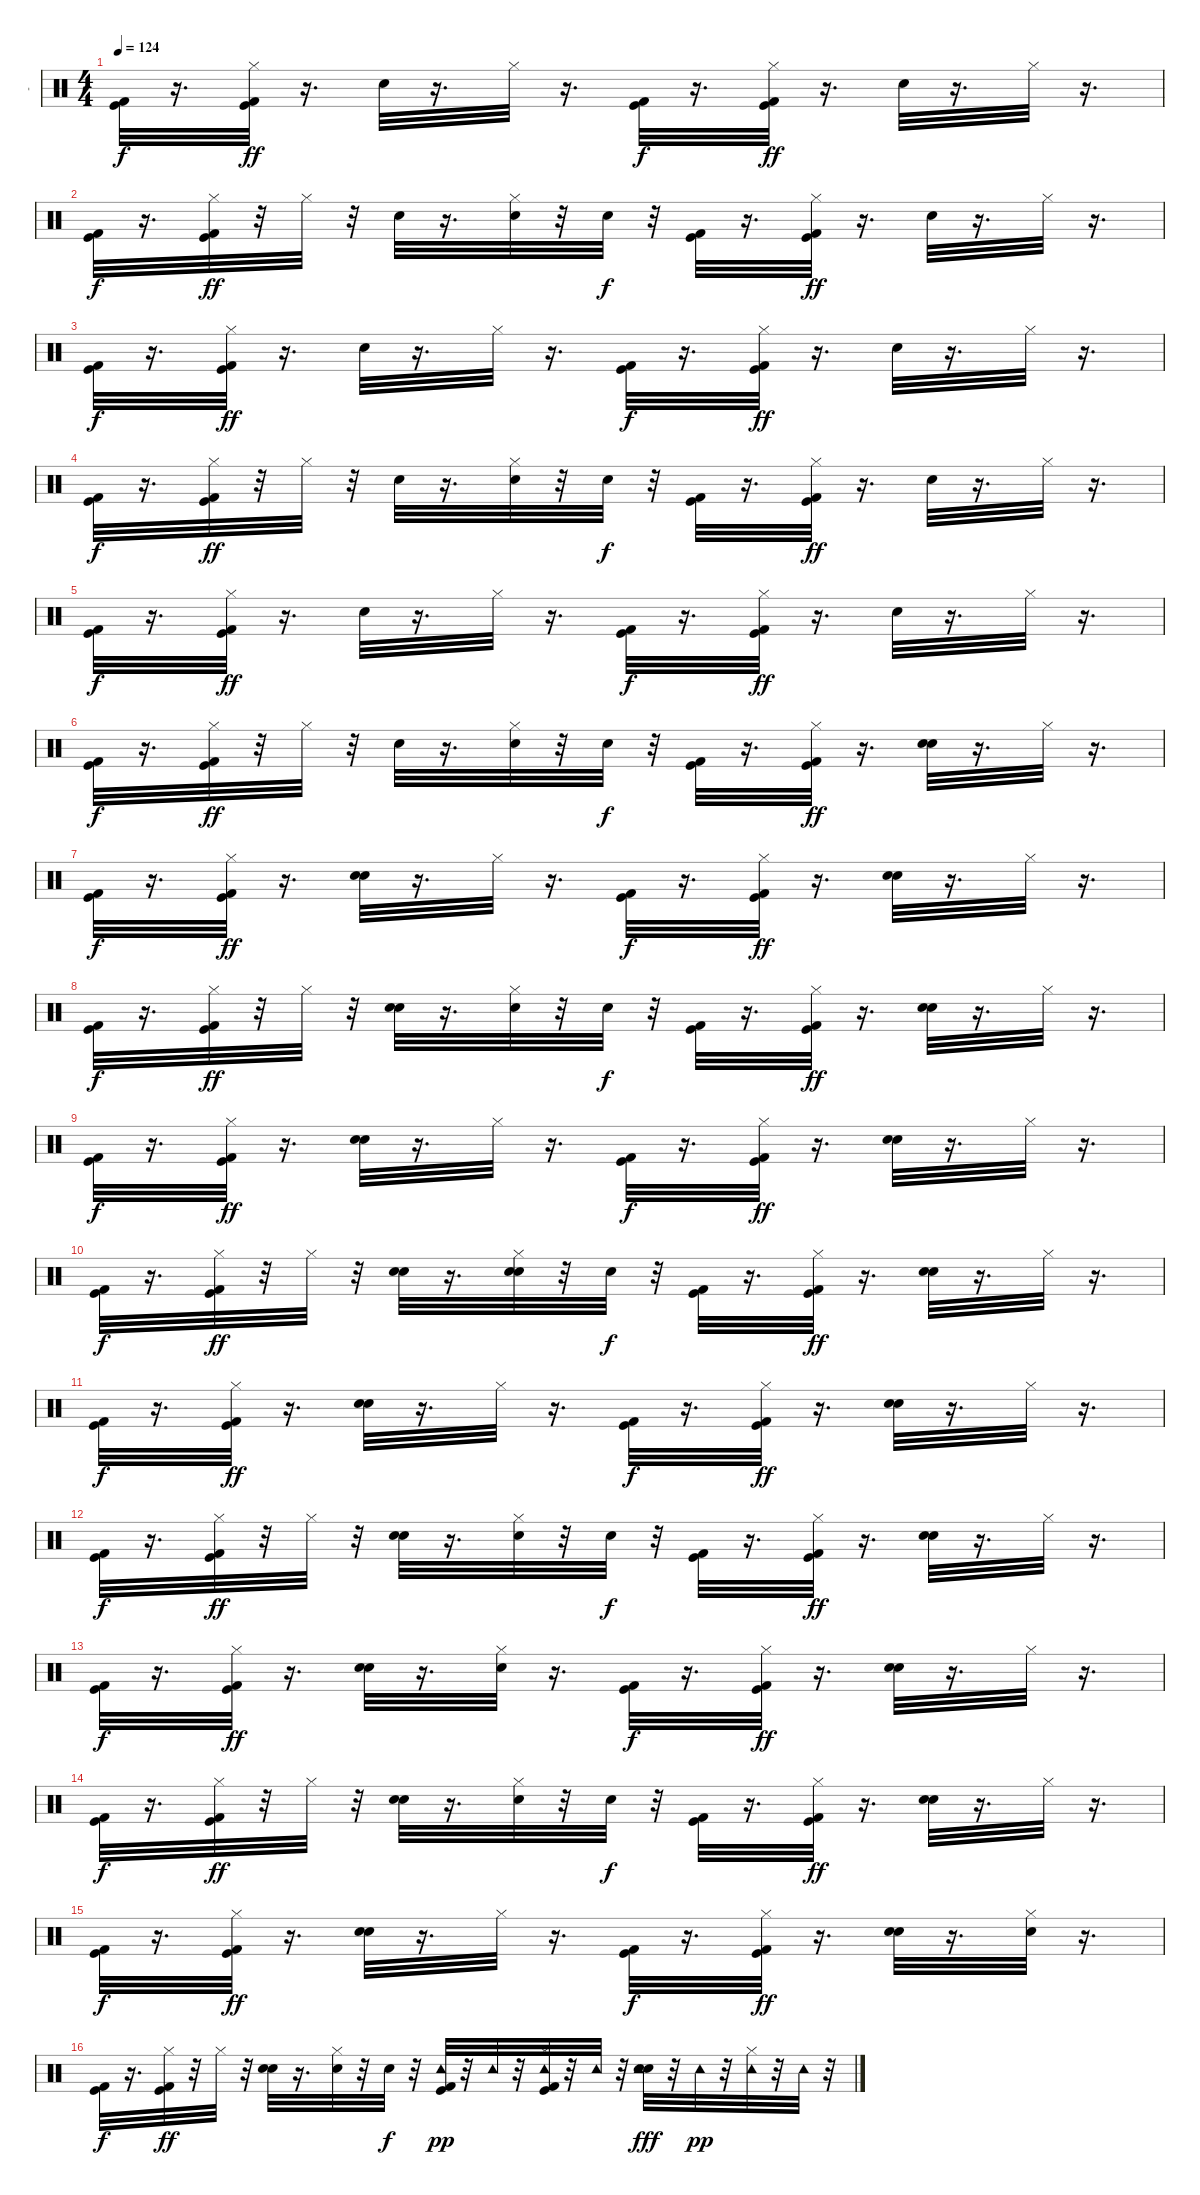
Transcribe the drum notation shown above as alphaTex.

\track ("-" "-") {instrument percussion}
\staff {score}
\articulation defaults
\ts (4 4)
\tempo 124
\clef neutral
\ks c
("Kick (hit)" "Kick (hit) 2").32{dy f} r.16{d} ("Kick (hit)" "Kick (hit) 2" "Hi-Hat (closed)").32{dy ff} r.16{d} "Snare (hit) 2".32 r.16{d} "Hi-Hat (closed)".32 r.16{d} ("Kick (hit)" "Kick (hit) 2").32{dy f} r.16{d} ("Kick (hit)" "Kick (hit) 2" "Hi-Hat (closed)").32{dy ff} r.16{d} "Snare (hit) 2".32 r.16{d} "Hi-Hat (closed)".32 r.16{d} |
("Kick (hit)" "Kick (hit) 2").32{dy f} r.16{d} ("Kick (hit)" "Kick (hit) 2" "Hi-Hat (closed)").32{dy ff} r.32 "Hi-Hat (closed)".32 r.32 "Snare (hit) 2".32 r.16{d} ("Snare (hit) 2" "Hi-Hat (closed)").32 r.32 "Snare (hit) 2".32{dy f} r.32 ("Kick (hit)" "Kick (hit) 2").32 r.16{d} ("Kick (hit)" "Kick (hit) 2" "Hi-Hat (closed)").32{dy ff} r.16{d} "Snare (hit) 2".32 r.16{d} "Hi-Hat (closed)".32 r.16{d} |
("Kick (hit)" "Kick (hit) 2").32{dy f} r.16{d} ("Kick (hit)" "Kick (hit) 2" "Hi-Hat (closed)").32{dy ff} r.16{d} "Snare (hit) 2".32 r.16{d} "Hi-Hat (closed)".32 r.16{d} ("Kick (hit)" "Kick (hit) 2").32{dy f} r.16{d} ("Kick (hit)" "Kick (hit) 2" "Hi-Hat (closed)").32{dy ff} r.16{d} "Snare (hit) 2".32 r.16{d} "Hi-Hat (closed)".32 r.16{d} |
("Kick (hit)" "Kick (hit) 2").32{dy f} r.16{d} ("Kick (hit)" "Kick (hit) 2" "Hi-Hat (closed)").32{dy ff} r.32 "Hi-Hat (closed)".32 r.32 "Snare (hit) 2".32 r.16{d} ("Snare (hit) 2" "Hi-Hat (closed)").32 r.32 "Snare (hit) 2".32{dy f} r.32 ("Kick (hit)" "Kick (hit) 2").32 r.16{d} ("Kick (hit)" "Kick (hit) 2" "Hi-Hat (closed)").32{dy ff} r.16{d} "Snare (hit) 2".32 r.16{d} "Hi-Hat (closed)".32 r.16{d} |
("Kick (hit)" "Kick (hit) 2").32{dy f} r.16{d} ("Kick (hit)" "Kick (hit) 2" "Hi-Hat (closed)").32{dy ff} r.16{d} "Snare (hit) 2".32 r.16{d} "Hi-Hat (closed)".32 r.16{d} ("Kick (hit)" "Kick (hit) 2").32{dy f} r.16{d} ("Kick (hit)" "Kick (hit) 2" "Hi-Hat (closed)").32{dy ff} r.16{d} "Snare (hit) 2".32 r.16{d} "Hi-Hat (closed)".32 r.16{d} |
("Kick (hit)" "Kick (hit) 2").32{dy f} r.16{d} ("Kick (hit)" "Kick (hit) 2" "Hi-Hat (closed)").32{dy ff} r.32 "Hi-Hat (closed)".32 r.32 "Snare (hit) 2".32 r.16{d} ("Snare (hit) 2" "Hi-Hat (closed)").32 r.32 "Snare (hit) 2".32{dy f} r.32 ("Kick (hit)" "Kick (hit) 2").32 r.16{d} ("Kick (hit)" "Kick (hit) 2" "Hi-Hat (closed)").32{dy ff} r.16{d} ("Snare (hit) 2" "Hand Clap (hit)").32 r.16{d} "Hi-Hat (closed)".32 r.16{d} |
("Kick (hit)" "Kick (hit) 2").32{dy f} r.16{d} ("Kick (hit)" "Kick (hit) 2" "Hi-Hat (closed)").32{dy ff} r.16{d} ("Snare (hit) 2" "Hand Clap (hit)").32 r.16{d} "Hi-Hat (closed)".32 r.16{d} ("Kick (hit)" "Kick (hit) 2").32{dy f} r.16{d} ("Kick (hit)" "Kick (hit) 2" "Hi-Hat (closed)").32{dy ff} r.16{d} ("Snare (hit) 2" "Hand Clap (hit)").32 r.16{d} "Hi-Hat (closed)".32 r.16{d} |
("Kick (hit)" "Kick (hit) 2").32{dy f} r.16{d} ("Kick (hit)" "Kick (hit) 2" "Hi-Hat (closed)").32{dy ff} r.32 "Hi-Hat (closed)".32 r.32 ("Snare (hit) 2" "Hand Clap (hit)").32 r.16{d} ("Snare (hit) 2" "Hi-Hat (closed)").32 r.32 "Snare (hit) 2".32{dy f} r.32 ("Kick (hit)" "Kick (hit) 2").32 r.16{d} ("Kick (hit)" "Kick (hit) 2" "Hi-Hat (closed)").32{dy ff} r.16{d} ("Snare (hit) 2" "Hand Clap (hit)").32 r.16{d} "Hi-Hat (closed)".32 r.16{d} |
("Kick (hit)" "Kick (hit) 2").32{dy f} r.16{d} ("Kick (hit)" "Kick (hit) 2" "Hi-Hat (closed)").32{dy ff} r.16{d} ("Snare (hit) 2" "Hand Clap (hit)").32 r.16{d} "Hi-Hat (closed)".32 r.16{d} ("Kick (hit)" "Kick (hit) 2").32{dy f} r.16{d} ("Kick (hit)" "Kick (hit) 2" "Hi-Hat (closed)").32{dy ff} r.16{d} ("Snare (hit) 2" "Hand Clap (hit)").32 r.16{d} "Hi-Hat (closed)".32 r.16{d} |
("Kick (hit)" "Kick (hit) 2").32{dy f} r.16{d} ("Kick (hit)" "Kick (hit) 2" "Hi-Hat (closed)").32{dy ff} r.32 "Hi-Hat (closed)".32 r.32 ("Snare (hit) 2" "Hand Clap (hit)").32 r.16{d} ("Snare (hit) 2" "Hand Clap (hit)" "Hi-Hat (closed)").32 r.32 "Snare (hit) 2".32{dy f} r.32 ("Kick (hit)" "Kick (hit) 2").32 r.16{d} ("Kick (hit)" "Kick (hit) 2" "Hi-Hat (closed)").32{dy ff} r.16{d} ("Snare (hit) 2" "Hand Clap (hit)").32 r.16{d} "Hi-Hat (closed)".32 r.16{d} |
("Kick (hit)" "Kick (hit) 2").32{dy f} r.16{d} ("Kick (hit)" "Kick (hit) 2" "Hi-Hat (closed)").32{dy ff} r.16{d} ("Snare (hit) 2" "Hand Clap (hit)").32 r.16{d} "Hi-Hat (closed)".32 r.16{d} ("Kick (hit)" "Kick (hit) 2").32{dy f} r.16{d} ("Kick (hit)" "Kick (hit) 2" "Hi-Hat (closed)").32{dy ff} r.16{d} ("Snare (hit) 2" "Hand Clap (hit)").32 r.16{d} "Hi-Hat (closed)".32 r.16{d} |
("Kick (hit)" "Kick (hit) 2").32{dy f} r.16{d} ("Kick (hit)" "Kick (hit) 2" "Hi-Hat (closed)").32{dy ff} r.32 "Hi-Hat (closed)".32 r.32 ("Snare (hit) 2" "Hand Clap (hit)").32 r.16{d} ("Snare (hit) 2" "Hi-Hat (closed)").32 r.32 "Snare (hit) 2".32{dy f} r.32 ("Kick (hit)" "Kick (hit) 2").32 r.16{d} ("Kick (hit)" "Kick (hit) 2" "Hi-Hat (closed)").32{dy ff} r.16{d} ("Snare (hit) 2" "Hand Clap (hit)").32 r.16{d} "Hi-Hat (closed)".32 r.16{d} |
("Kick (hit)" "Kick (hit) 2").32{dy f} r.16{d} ("Kick (hit)" "Kick (hit) 2" "Hi-Hat (closed)").32{dy ff} r.16{d} ("Snare (hit) 2" "Hand Clap (hit)").32 r.16{d} ("Hand Clap (hit)" "Hi-Hat (closed)").32 r.16{d} ("Kick (hit)" "Kick (hit) 2").32{dy f} r.16{d} ("Kick (hit)" "Kick (hit) 2" "Hi-Hat (closed)").32{dy ff} r.16{d} ("Snare (hit) 2" "Hand Clap (hit)").32 r.16{d} "Hi-Hat (closed)".32 r.16{d} |
("Kick (hit)" "Kick (hit) 2").32{dy f} r.16{d} ("Kick (hit)" "Kick (hit) 2" "Hi-Hat (closed)").32{dy ff} r.32 "Hi-Hat (closed)".32 r.32 ("Snare (hit) 2" "Hand Clap (hit)").32 r.16{d} ("Snare (hit) 2" "Hi-Hat (closed)").32 r.32 "Snare (hit) 2".32{dy f} r.32 ("Kick (hit)" "Kick (hit) 2").32 r.16{d} ("Kick (hit)" "Kick (hit) 2" "Hi-Hat (closed)").32{dy ff} r.16{d} ("Snare (hit) 2" "Hand Clap (hit)").32 r.16{d} "Hi-Hat (closed)".32 r.16{d} |
("Kick (hit)" "Kick (hit) 2").32{dy f} r.16{d} ("Kick (hit)" "Kick (hit) 2" "Hi-Hat (closed)").32{dy ff} r.16{d} ("Snare (hit) 2" "Hand Clap (hit)").32 r.16{d} "Hi-Hat (closed)".32 r.16{d} ("Kick (hit)" "Kick (hit) 2").32{dy f} r.16{d} ("Kick (hit)" "Kick (hit) 2" "Hi-Hat (closed)").32{dy ff} r.16{d} ("Snare (hit) 2" "Hand Clap (hit)").32 r.16{d} ("Hand Clap (hit)" "Hi-Hat (closed)").32 r.16{d} |
("Kick (hit)" "Kick (hit) 2").32{dy f} r.16{d} ("Kick (hit)" "Kick (hit) 2" "Hi-Hat (closed)").32{dy ff} r.32 "Hi-Hat (closed)".32 r.32 ("Snare (hit) 2" "Hand Clap (hit)").32 r.16{d} ("Snare (hit) 2" "Hi-Hat (closed)").32 r.32 "Snare (hit) 2".32{dy f} r.32 ("Kick (hit)" "Kick (hit) 2" "Tambourine (hit)").32{dy pp} r.32 "Tambourine (hit)".32 r.32 ("Kick (hit)" "Kick (hit) 2" "Hi-Hat (closed)" "Tambourine (hit)").32 r.32 "Tambourine (hit)".32 r.32 ("Snare (hit) 2" "Hand Clap (hit)" "Tambourine (hit)").32{dy fff} r.32 "Tambourine (hit)".32{dy pp} r.32 ("Hi-Hat (closed)" "Tambourine (hit)").32 r.32 "Tambourine (hit)".32 r.32
